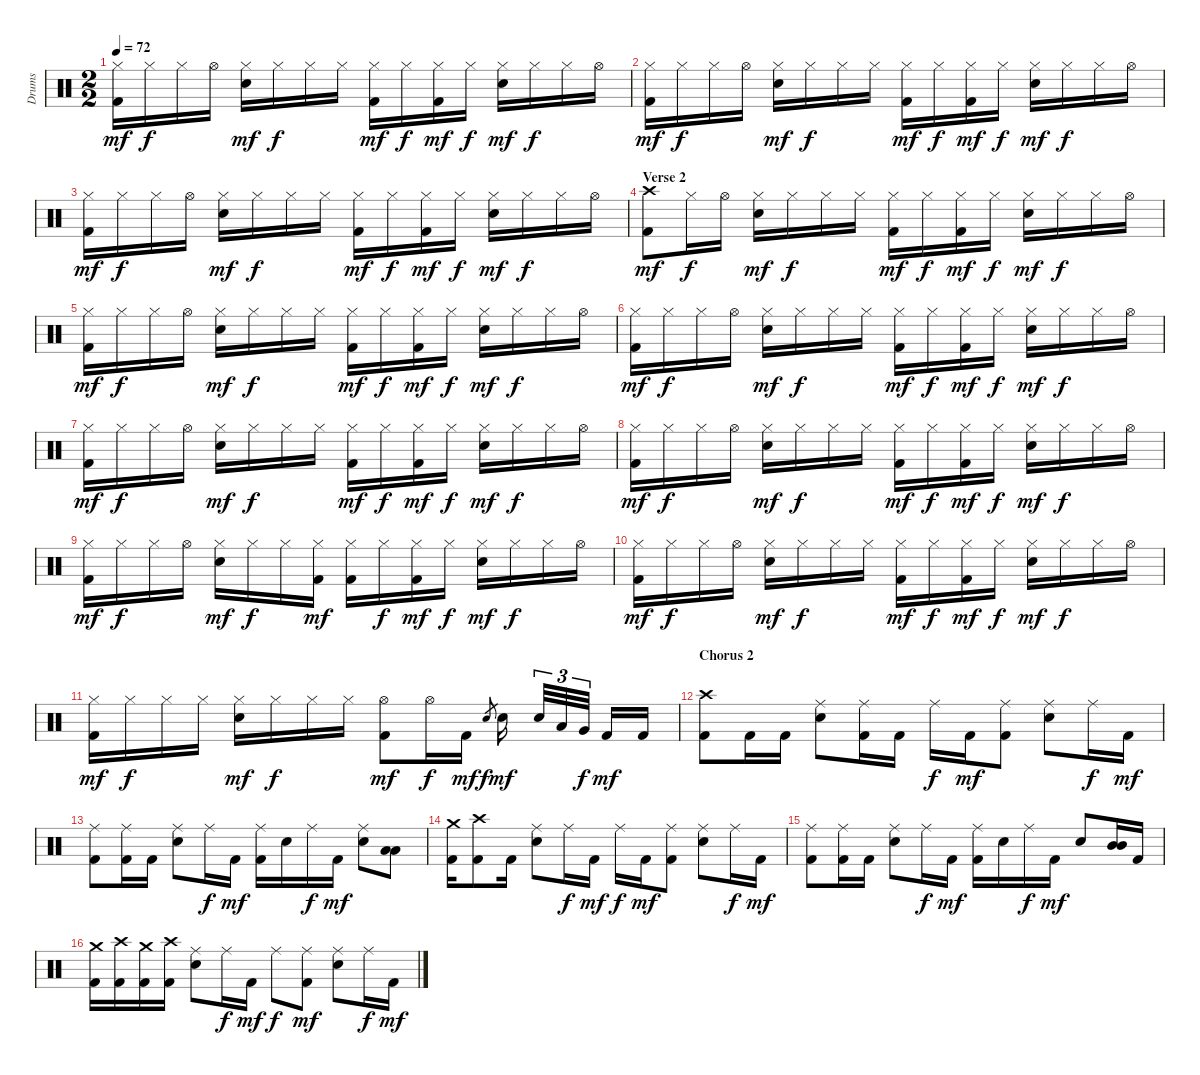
\track ("Drums" "Drums") {instrument percussion}
\staff {score}
\articulation defaults
\ts (2 2)
\tempo 72
\clef neutral
\ks c
("Hi-Hat (closed)" "Kick (hit) 2").16{dy mf} "Hi-Hat (closed)".16{dy f} "Hi-Hat (closed)".16 "Hi-Hat (open)".16 ("Hi-Hat (closed)" "Electric Snare (hit)").16{dy mf} "Hi-Hat (closed)".16{dy f} "Hi-Hat (closed)".16 "Hi-Hat (closed)".16 ("Hi-Hat (closed)" "Kick (hit) 2").16{dy mf} "Hi-Hat (closed)".16{dy f} ("Hi-Hat (closed)" "Kick (hit) 2").16{dy mf} "Hi-Hat (closed)".16{dy f} ("Hi-Hat (closed)" "Electric Snare (hit)").16{dy mf} "Hi-Hat (closed)".16{dy f} "Hi-Hat (closed)".16 "Hi-Hat (open)".16 |
("Hi-Hat (closed)" "Kick (hit) 2").16{dy mf} "Hi-Hat (closed)".16{dy f} "Hi-Hat (closed)".16 "Hi-Hat (open)".16 ("Hi-Hat (closed)" "Electric Snare (hit)").16{dy mf} "Hi-Hat (closed)".16{dy f} "Hi-Hat (closed)".16 "Hi-Hat (closed)".16 ("Hi-Hat (closed)" "Kick (hit) 2").16{dy mf} "Hi-Hat (closed)".16{dy f} ("Hi-Hat (closed)" "Kick (hit) 2").16{dy mf} "Hi-Hat (closed)".16{dy f} ("Hi-Hat (closed)" "Electric Snare (hit)").16{dy mf} "Hi-Hat (closed)".16{dy f} "Hi-Hat (closed)".16 "Hi-Hat (open)".16 |
("Hi-Hat (closed)" "Kick (hit) 2").16{dy mf} "Hi-Hat (closed)".16{dy f} "Hi-Hat (closed)".16 "Hi-Hat (open)".16 ("Hi-Hat (closed)" "Electric Snare (hit)").16{dy mf} "Hi-Hat (closed)".16{dy f} "Hi-Hat (closed)".16 "Hi-Hat (closed)".16 ("Hi-Hat (closed)" "Kick (hit) 2").16{dy mf} "Hi-Hat (closed)".16{dy f} ("Hi-Hat (closed)" "Kick (hit) 2").16{dy mf} "Hi-Hat (closed)".16{dy f} ("Hi-Hat (closed)" "Electric Snare (hit)").16{dy mf} "Hi-Hat (closed)".16{dy f} "Hi-Hat (closed)".16 "Hi-Hat (open)".16 |
\section ("" "Verse 2")
("Crash high (hit)" "Kick (hit) 2").8{dy mf} "Hi-Hat (closed)".16{dy f} "Hi-Hat (open)".16 ("Hi-Hat (closed)" "Electric Snare (hit)").16{dy mf} "Hi-Hat (closed)".16{dy f} "Hi-Hat (closed)".16 "Hi-Hat (closed)".16 ("Hi-Hat (closed)" "Kick (hit) 2").16{dy mf} "Hi-Hat (closed)".16{dy f} ("Hi-Hat (closed)" "Kick (hit) 2").16{dy mf} "Hi-Hat (closed)".16{dy f} ("Hi-Hat (closed)" "Electric Snare (hit)").16{dy mf} "Hi-Hat (closed)".16{dy f} "Hi-Hat (closed)".16 "Hi-Hat (open)".16 |
("Hi-Hat (closed)" "Kick (hit) 2").16{dy mf} "Hi-Hat (closed)".16{dy f} "Hi-Hat (closed)".16 "Hi-Hat (open)".16 ("Hi-Hat (closed)" "Electric Snare (hit)").16{dy mf} "Hi-Hat (closed)".16{dy f} "Hi-Hat (closed)".16 "Hi-Hat (closed)".16 ("Hi-Hat (closed)" "Kick (hit) 2").16{dy mf} "Hi-Hat (closed)".16{dy f} ("Hi-Hat (closed)" "Kick (hit) 2").16{dy mf} "Hi-Hat (closed)".16{dy f} ("Hi-Hat (closed)" "Electric Snare (hit)").16{dy mf} "Hi-Hat (closed)".16{dy f} "Hi-Hat (closed)".16 "Hi-Hat (open)".16 |
("Hi-Hat (closed)" "Kick (hit) 2").16{dy mf} "Hi-Hat (closed)".16{dy f} "Hi-Hat (closed)".16 "Hi-Hat (open)".16 ("Hi-Hat (closed)" "Electric Snare (hit)").16{dy mf} "Hi-Hat (closed)".16{dy f} "Hi-Hat (closed)".16 "Hi-Hat (closed)".16 ("Hi-Hat (closed)" "Kick (hit) 2").16{dy mf} "Hi-Hat (closed)".16{dy f} ("Hi-Hat (closed)" "Kick (hit) 2").16{dy mf} "Hi-Hat (closed)".16{dy f} ("Hi-Hat (closed)" "Electric Snare (hit)").16{dy mf} "Hi-Hat (closed)".16{dy f} "Hi-Hat (closed)".16 "Hi-Hat (open)".16 |
("Hi-Hat (closed)" "Kick (hit) 2").16{dy mf} "Hi-Hat (closed)".16{dy f} "Hi-Hat (closed)".16 "Hi-Hat (open)".16 ("Hi-Hat (closed)" "Electric Snare (hit)").16{dy mf} "Hi-Hat (closed)".16{dy f} "Hi-Hat (closed)".16 "Hi-Hat (closed)".16 ("Hi-Hat (closed)" "Kick (hit) 2").16{dy mf} "Hi-Hat (closed)".16{dy f} ("Hi-Hat (closed)" "Kick (hit) 2").16{dy mf} "Hi-Hat (closed)".16{dy f} ("Hi-Hat (closed)" "Electric Snare (hit)").16{dy mf} "Hi-Hat (closed)".16{dy f} "Hi-Hat (closed)".16 "Hi-Hat (open)".16 |
("Hi-Hat (closed)" "Kick (hit) 2").16{dy mf} "Hi-Hat (closed)".16{dy f} "Hi-Hat (closed)".16 "Hi-Hat (open)".16 ("Hi-Hat (closed)" "Electric Snare (hit)").16{dy mf} "Hi-Hat (closed)".16{dy f} "Hi-Hat (closed)".16 "Hi-Hat (closed)".16 ("Hi-Hat (closed)" "Kick (hit) 2").16{dy mf} "Hi-Hat (closed)".16{dy f} ("Hi-Hat (closed)" "Kick (hit) 2").16{dy mf} "Hi-Hat (closed)".16{dy f} ("Hi-Hat (closed)" "Electric Snare (hit)").16{dy mf} "Hi-Hat (closed)".16{dy f} "Hi-Hat (closed)".16 "Hi-Hat (open)".16 |
("Hi-Hat (closed)" "Kick (hit) 2").16{dy mf} "Hi-Hat (closed)".16{dy f} "Hi-Hat (closed)".16 "Hi-Hat (open)".16 ("Hi-Hat (closed)" "Electric Snare (hit)").16{dy mf} "Hi-Hat (closed)".16{dy f} "Hi-Hat (closed)".16 ("Hi-Hat (closed)" "Kick (hit) 2").16{dy mf} ("Hi-Hat (closed)" "Kick (hit) 2").16 "Hi-Hat (closed)".16{dy f} ("Hi-Hat (closed)" "Kick (hit) 2").16{dy mf} "Hi-Hat (closed)".16{dy f} ("Hi-Hat (closed)" "Electric Snare (hit)").16{dy mf} "Hi-Hat (closed)".16{dy f} "Hi-Hat (closed)".16 "Hi-Hat (open)".16 |
("Hi-Hat (closed)" "Kick (hit) 2").16{dy mf} "Hi-Hat (closed)".16{dy f} "Hi-Hat (closed)".16 "Hi-Hat (open)".16 ("Hi-Hat (closed)" "Electric Snare (hit)").16{dy mf} "Hi-Hat (closed)".16{dy f} "Hi-Hat (closed)".16 "Hi-Hat (closed)".16 ("Hi-Hat (closed)" "Kick (hit) 2").16{dy mf} "Hi-Hat (closed)".16{dy f} ("Hi-Hat (closed)" "Kick (hit) 2").16{dy mf} "Hi-Hat (closed)".16{dy f} ("Hi-Hat (closed)" "Electric Snare (hit)").16{dy mf} "Hi-Hat (closed)".16{dy f} "Hi-Hat (closed)".16 "Hi-Hat (open)".16 |
("Hi-Hat (closed)" "Kick (hit) 2").16{dy mf} "Hi-Hat (closed)".16{dy f} "Hi-Hat (closed)".16 "Hi-Hat (closed)".16 ("Hi-Hat (closed)" "Electric Snare (hit)").16{dy mf} "Hi-Hat (closed)".16{dy f} "Hi-Hat (closed)".16 "Hi-Hat (closed)".16 ("Hi-Hat (open)" "Kick (hit) 2").8{dy mf} "Hi-Hat (open)".16{dy f} "Kick (hit) 2".16{dy mf} "Electric Snare (hit)".8{gr dy f} "Electric Snare (hit)".16{dy mf} "Electric Snare (hit)".32{tu (3 2)} "Low Tom (hit)".32{tu (3 2)} "Very Low Tom (hit)".32{tu (3 2) dy f} "Kick (hit) 2".16{dy mf} "Kick (hit) 2".16 |
\section ("" "Chorus 2")
("Crash high (hit)" "Kick (hit) 2").8 "Kick (hit) 2".16 "Kick (hit) 2".16 ("Ride (middle)" "Electric Snare (hit)").8 ("Ride (middle)" "Kick (hit) 2").16 "Kick (hit) 2".16 "Ride (middle)".16{dy f} "Kick (hit) 2".16{dy mf} ("Ride (middle)" "Kick (hit) 2").8 ("Ride (middle)" "Electric Snare (hit)").8 "Ride (middle)".16{dy f} "Kick (hit) 2".16{dy mf} |
("Ride (middle)" "Kick (hit) 2").8 ("Ride (middle)" "Kick (hit) 2").16 "Kick (hit) 2".16 ("Ride (middle)" "Electric Snare (hit)").8 "Ride (middle)".16{dy f} "Kick (hit) 2".16{dy mf} ("Ride (middle)" "Kick (hit) 2").16 "Electric Snare (hit)".16 "Ride (middle)".16{dy f} "Kick (hit) 2".16{dy mf} ("Ride (middle)" "Electric Snare (hit)").8 ("Low Tom (hit)" "Low Tom (hit)").8 |
("Crash medium (hit)" "Kick (hit) 2").16 ("Crash high (hit)" "Kick (hit) 2").8 "Kick (hit) 2".16 ("Ride (middle)" "Electric Snare (hit)").8 "Ride (middle)".16{dy f} "Kick (hit) 2".16{dy mf} "Ride (middle)".16{dy f} "Kick (hit) 2".16{dy mf} ("Ride (middle)" "Kick (hit) 2").8 ("Ride (middle)" "Electric Snare (hit)").8 "Ride (middle)".16{dy f} "Kick (hit) 2".16{dy mf} |
("Ride (middle)" "Kick (hit) 2").8 ("Ride (middle)" "Kick (hit) 2").16 "Kick (hit) 2".16 ("Ride (middle)" "Electric Snare (hit)").8 "Ride (middle)".16{dy f} "Kick (hit) 2".16{dy mf} ("Ride (middle)" "Kick (hit) 2").16 "Electric Snare (hit)".16 "Ride (middle)".16{dy f} "Kick (hit) 2".16{dy mf} "Electric Snare (hit)".8 ("Mid Tom (hit)" "Mid Tom (hit)").16 "Kick (hit) 2".16 |
("Crash medium (hit)" "Kick (hit) 2").16 ("Crash high (hit)" "Kick (hit) 2").16 ("Crash medium (hit)" "Kick (hit) 2").16 ("Crash high (hit)" "Kick (hit) 2").16 ("Ride (middle)" "Electric Snare (hit)").8 "Ride (middle)".16{dy f} "Kick (hit) 2".16{dy mf} "Ride (middle)".8{dy f} ("Ride (middle)" "Kick (hit) 2").8{dy mf} ("Ride (middle)" "Electric Snare (hit)").8 "Ride (middle)".16{dy f} "Kick (hit) 2".16{dy mf}
